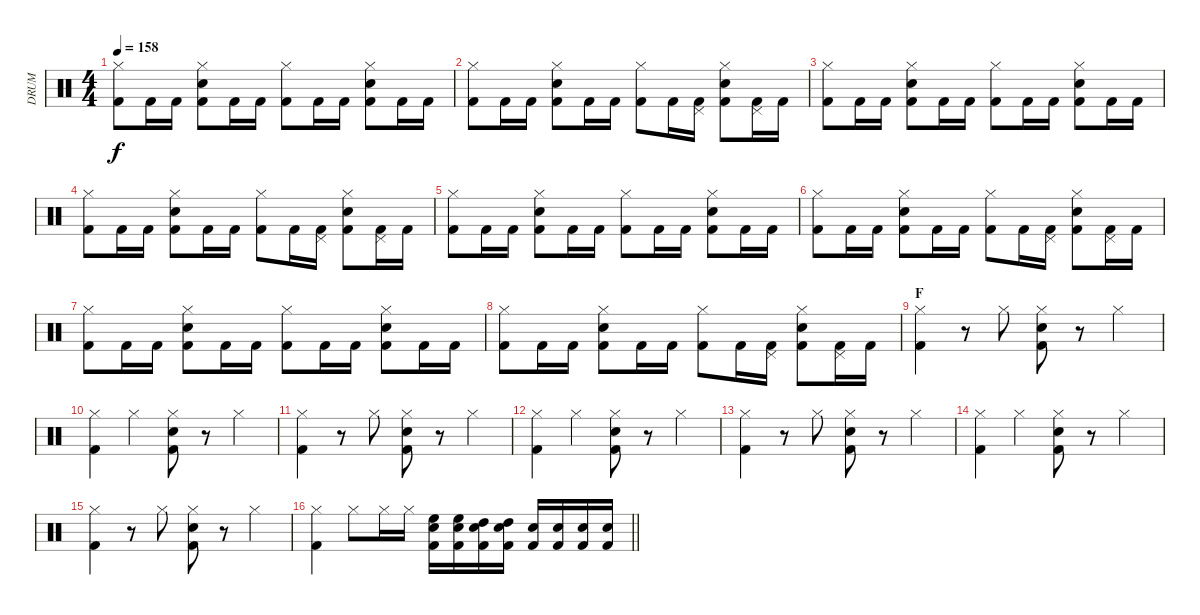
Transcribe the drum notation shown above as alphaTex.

\track ("DRUM" "DRUM") {instrument percussion}
\staff {score}
\articulation defaults
\ts (4 4)
\tempo 158
\clef neutral
\ks c
("Hi-Hat (closed)" "Kick (hit) 2").8{dy f} "Kick (hit) 2".16 "Kick (hit) 2".16 ("Hi-Hat (closed)" "Snare (hit) 2" "Kick (hit) 2").8 "Kick (hit) 2".16 "Kick (hit) 2".16 ("Hi-Hat (closed)" "Kick (hit) 2").8 "Kick (hit) 2".16 "Kick (hit) 2".16 ("Hi-Hat (closed)" "Snare (hit) 2" "Kick (hit) 2").8 "Kick (hit) 2".16 "Kick (hit) 2".16 |
("Hi-Hat (closed)" "Kick (hit) 2").8 "Kick (hit) 2".16 "Kick (hit) 2".16 ("Hi-Hat (closed)" "Snare (hit) 2" "Kick (hit) 2").8 "Kick (hit) 2".16 "Kick (hit) 2".16 ("Hi-Hat (closed)" "Kick (hit) 2").8 "Kick (hit) 2".16 ("Pedal Hi-Hat (hit)" "Kick (hit) 2").16 ("Hi-Hat (closed)" "Snare (hit) 2" "Kick (hit) 2").8 ("Pedal Hi-Hat (hit)" "Kick (hit) 2").16 "Kick (hit) 2".16 |
("Hi-Hat (closed)" "Kick (hit) 2").8 "Kick (hit) 2".16 "Kick (hit) 2".16 ("Hi-Hat (closed)" "Snare (hit) 2" "Kick (hit) 2").8 "Kick (hit) 2".16 "Kick (hit) 2".16 ("Hi-Hat (closed)" "Kick (hit) 2").8 "Kick (hit) 2".16 "Kick (hit) 2".16 ("Hi-Hat (closed)" "Snare (hit) 2" "Kick (hit) 2").8 "Kick (hit) 2".16 "Kick (hit) 2".16 |
("Hi-Hat (closed)" "Kick (hit) 2").8 "Kick (hit) 2".16 "Kick (hit) 2".16 ("Hi-Hat (closed)" "Snare (hit) 2" "Kick (hit) 2").8 "Kick (hit) 2".16 "Kick (hit) 2".16 ("Hi-Hat (closed)" "Kick (hit) 2").8 "Kick (hit) 2".16 ("Pedal Hi-Hat (hit)" "Kick (hit) 2").16 ("Hi-Hat (closed)" "Snare (hit) 2" "Kick (hit) 2").8 ("Pedal Hi-Hat (hit)" "Kick (hit) 2").16 "Kick (hit) 2".16 |
("Hi-Hat (closed)" "Kick (hit) 2").8 "Kick (hit) 2".16 "Kick (hit) 2".16 ("Hi-Hat (closed)" "Snare (hit) 2" "Kick (hit) 2").8 "Kick (hit) 2".16 "Kick (hit) 2".16 ("Hi-Hat (closed)" "Kick (hit) 2").8 "Kick (hit) 2".16 "Kick (hit) 2".16 ("Hi-Hat (closed)" "Snare (hit) 2" "Kick (hit) 2").8 "Kick (hit) 2".16 "Kick (hit) 2".16 |
("Hi-Hat (closed)" "Kick (hit) 2").8 "Kick (hit) 2".16 "Kick (hit) 2".16 ("Hi-Hat (closed)" "Snare (hit) 2" "Kick (hit) 2").8 "Kick (hit) 2".16 "Kick (hit) 2".16 ("Hi-Hat (closed)" "Kick (hit) 2").8 "Kick (hit) 2".16 ("Pedal Hi-Hat (hit)" "Kick (hit) 2").16 ("Hi-Hat (closed)" "Snare (hit) 2" "Kick (hit) 2").8 ("Pedal Hi-Hat (hit)" "Kick (hit) 2").16 "Kick (hit) 2".16 |
("Hi-Hat (closed)" "Kick (hit) 2").8 "Kick (hit) 2".16 "Kick (hit) 2".16 ("Hi-Hat (closed)" "Snare (hit) 2" "Kick (hit) 2").8 "Kick (hit) 2".16 "Kick (hit) 2".16 ("Hi-Hat (closed)" "Kick (hit) 2").8 "Kick (hit) 2".16 "Kick (hit) 2".16 ("Hi-Hat (closed)" "Snare (hit) 2" "Kick (hit) 2").8 "Kick (hit) 2".16 "Kick (hit) 2".16 |
("Hi-Hat (closed)" "Kick (hit) 2").8 "Kick (hit) 2".16 "Kick (hit) 2".16 ("Hi-Hat (closed)" "Snare (hit) 2" "Kick (hit) 2").8 "Kick (hit) 2".16 "Kick (hit) 2".16 ("Hi-Hat (closed)" "Kick (hit) 2").8 "Kick (hit) 2".16 ("Pedal Hi-Hat (hit)" "Kick (hit) 2").16 ("Hi-Hat (closed)" "Snare (hit) 2" "Kick (hit) 2").8 ("Pedal Hi-Hat (hit)" "Kick (hit) 2").16 "Kick (hit) 2".16 |
\section ("" "F")
("Hi-Hat (closed)" "Kick (hit) 2").4 r.8 "Hi-Hat (closed)".8 ("Hi-Hat (closed)" "Snare (hit) 2" "Kick (hit) 2").8 r.8 "Hi-Hat (closed)".4 |
("Hi-Hat (closed)" "Kick (hit) 2").4 "Hi-Hat (closed)".4 ("Hi-Hat (closed)" "Snare (hit) 2" "Kick (hit) 2").8 r.8 "Hi-Hat (closed)".4 |
("Hi-Hat (closed)" "Kick (hit) 2").4 r.8 "Hi-Hat (closed)".8 ("Hi-Hat (closed)" "Snare (hit) 2" "Kick (hit) 2").8 r.8 "Hi-Hat (closed)".4 |
("Hi-Hat (closed)" "Kick (hit) 2").4 "Hi-Hat (closed)".4 ("Hi-Hat (closed)" "Snare (hit) 2" "Kick (hit) 2").8 r.8 "Hi-Hat (closed)".4 |
("Hi-Hat (closed)" "Kick (hit) 2").4 r.8 "Hi-Hat (closed)".8 ("Hi-Hat (closed)" "Snare (hit) 2" "Kick (hit) 2").8 r.8 "Hi-Hat (closed)".4 |
("Hi-Hat (closed)" "Kick (hit) 2").4 "Hi-Hat (closed)".4 ("Hi-Hat (closed)" "Snare (hit) 2" "Kick (hit) 2").8 r.8 "Hi-Hat (closed)".4 |
("Hi-Hat (closed)" "Kick (hit) 2").4 r.8 "Hi-Hat (closed)".8 ("Hi-Hat (closed)" "Snare (hit) 2" "Kick (hit) 2").8 r.8 "Hi-Hat (closed)".4 |
\barLineRight lightlight
("Hi-Hat (closed)" "Kick (hit) 2").4 "Hi-Hat (closed)".8 "Hi-Hat (closed)".16 "Hi-Hat (closed)".16 ("High Floor Tom (hit)" "Snare (hit) 2" "Kick (hit) 2").16 ("High Floor Tom (hit)" "Snare (hit) 2" "Kick (hit) 2").16 ("High Tom (hit)" "Snare (hit) 2" "Kick (hit) 2").16 ("High Tom (hit)" "Snare (hit) 2" "Kick (hit) 2").16 ("Snare (hit) 2" "Kick (hit) 2").16 ("Snare (hit) 2" "Kick (hit) 2").16 ("Snare (hit) 2" "Kick (hit) 2").16 ("Snare (hit) 2" "Kick (hit) 2").16
